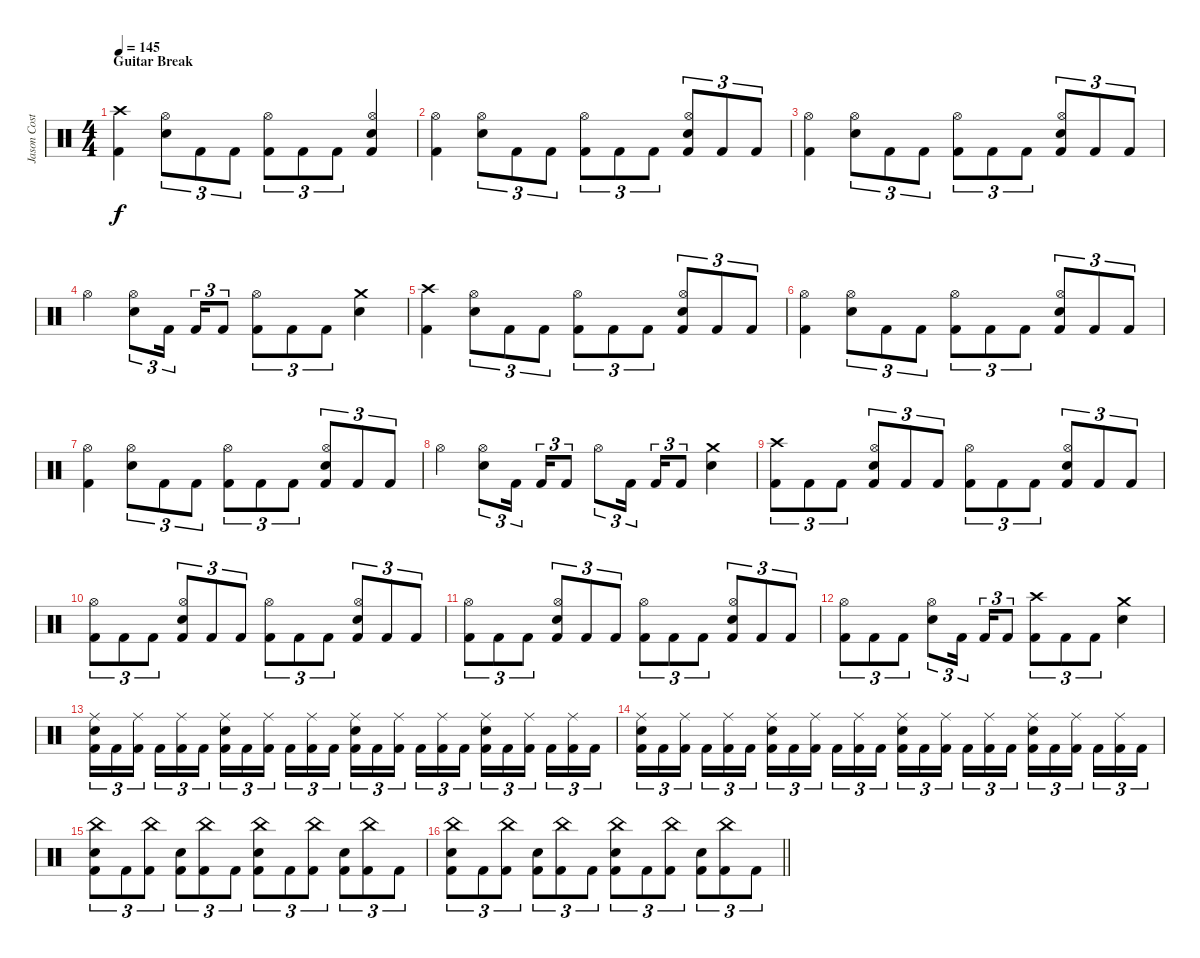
\track ("Jason Costa" "Jason Cost") {instrument percussion}
\staff {score}
\articulation defaults
\ts (4 4)
\section ("" "Guitar Break")
\tempo 145
\clef neutral
\ks c
("Crash high (hit)" "Kick (hit) 2").4{dy f} ("Hi-Hat (open)" "Electric Snare (hit)").8{tu (3 2)} "Kick (hit) 2".8{tu (3 2)} "Kick (hit) 2".8{tu (3 2)} ("Hi-Hat (open)" "Kick (hit) 2").8{tu (3 2)} "Kick (hit) 2".8{tu (3 2)} "Kick (hit) 2".8{tu (3 2)} ("Hi-Hat (open)" "Electric Snare (hit)" "Kick (hit) 2").4 |
("Hi-Hat (open)" "Kick (hit) 2").4 ("Hi-Hat (open)" "Electric Snare (hit)").8{tu (3 2)} "Kick (hit) 2".8{tu (3 2)} "Kick (hit) 2".8{tu (3 2)} ("Hi-Hat (open)" "Kick (hit) 2").8{tu (3 2)} "Kick (hit) 2".8{tu (3 2)} "Kick (hit) 2".8{tu (3 2)} ("Hi-Hat (open)" "Electric Snare (hit)" "Kick (hit) 2").8{tu (3 2)} "Kick (hit) 2".8{tu (3 2)} "Kick (hit) 2".8{tu (3 2)} |
("Hi-Hat (open)" "Kick (hit) 2").4 ("Hi-Hat (open)" "Electric Snare (hit)").8{tu (3 2)} "Kick (hit) 2".8{tu (3 2)} "Kick (hit) 2".8{tu (3 2)} ("Hi-Hat (open)" "Kick (hit) 2").8{tu (3 2)} "Kick (hit) 2".8{tu (3 2)} "Kick (hit) 2".8{tu (3 2)} ("Hi-Hat (open)" "Electric Snare (hit)" "Kick (hit) 2").8{tu (3 2)} "Kick (hit) 2".8{tu (3 2)} "Kick (hit) 2".8{tu (3 2)} |
"Hi-Hat (open)".4 ("Hi-Hat (open)" "Electric Snare (hit)").8{tu (3 2)} "Kick (hit) 2".16{tu (3 2) beam splitsecondary} "Kick (hit) 2".16{tu (3 2)} "Kick (hit) 2".8{tu (3 2)} ("Hi-Hat (open)" "Kick (hit) 2").8{tu (3 2)} "Kick (hit) 2".8{tu (3 2)} "Kick (hit) 2".8{tu (3 2)} ("Crash medium (hit)" "Electric Snare (hit)").4 |
("Crash high (hit)" "Kick (hit) 2").4 ("Hi-Hat (open)" "Electric Snare (hit)").8{tu (3 2)} "Kick (hit) 2".8{tu (3 2)} "Kick (hit) 2".8{tu (3 2)} ("Hi-Hat (open)" "Kick (hit) 2").8{tu (3 2)} "Kick (hit) 2".8{tu (3 2)} "Kick (hit) 2".8{tu (3 2)} ("Hi-Hat (open)" "Electric Snare (hit)" "Kick (hit) 2").8{tu (3 2)} "Kick (hit) 2".8{tu (3 2)} "Kick (hit) 2".8{tu (3 2)} |
("Hi-Hat (open)" "Kick (hit) 2").4 ("Hi-Hat (open)" "Electric Snare (hit)").8{tu (3 2)} "Kick (hit) 2".8{tu (3 2)} "Kick (hit) 2".8{tu (3 2)} ("Hi-Hat (open)" "Kick (hit) 2").8{tu (3 2)} "Kick (hit) 2".8{tu (3 2)} "Kick (hit) 2".8{tu (3 2)} ("Hi-Hat (open)" "Electric Snare (hit)" "Kick (hit) 2").8{tu (3 2)} "Kick (hit) 2".8{tu (3 2)} "Kick (hit) 2".8{tu (3 2)} |
("Hi-Hat (open)" "Kick (hit) 2").4 ("Hi-Hat (open)" "Electric Snare (hit)").8{tu (3 2)} "Kick (hit) 2".8{tu (3 2)} "Kick (hit) 2".8{tu (3 2)} ("Hi-Hat (open)" "Kick (hit) 2").8{tu (3 2)} "Kick (hit) 2".8{tu (3 2)} "Kick (hit) 2".8{tu (3 2)} ("Hi-Hat (open)" "Electric Snare (hit)" "Kick (hit) 2").8{tu (3 2)} "Kick (hit) 2".8{tu (3 2)} "Kick (hit) 2".8{tu (3 2)} |
"Hi-Hat (open)".4 ("Hi-Hat (open)" "Electric Snare (hit)").8{tu (3 2)} "Kick (hit) 2".16{tu (3 2) beam splitsecondary} "Kick (hit) 2".16{tu (3 2)} "Kick (hit) 2".8{tu (3 2)} "Hi-Hat (open)".8{tu (3 2)} "Kick (hit) 2".16{tu (3 2) beam splitsecondary} "Kick (hit) 2".16{tu (3 2)} "Kick (hit) 2".8{tu (3 2)} ("Crash medium (hit)" "Electric Snare (hit)").4 |
("Crash high (hit)" "Kick (hit) 2").8{tu (3 2)} "Kick (hit) 2".8{tu (3 2)} "Kick (hit) 2".8{tu (3 2)} ("Hi-Hat (open)" "Electric Snare (hit)" "Kick (hit) 2").8{tu (3 2)} "Kick (hit) 2".8{tu (3 2)} "Kick (hit) 2".8{tu (3 2)} ("Hi-Hat (open)" "Kick (hit) 2").8{tu (3 2)} "Kick (hit) 2".8{tu (3 2)} "Kick (hit) 2".8{tu (3 2)} ("Hi-Hat (open)" "Electric Snare (hit)" "Kick (hit) 2").8{tu (3 2)} "Kick (hit) 2".8{tu (3 2)} "Kick (hit) 2".8{tu (3 2)} |
("Hi-Hat (open)" "Kick (hit) 2").8{tu (3 2)} "Kick (hit) 2".8{tu (3 2)} "Kick (hit) 2".8{tu (3 2)} ("Hi-Hat (open)" "Electric Snare (hit)" "Kick (hit) 2").8{tu (3 2)} "Kick (hit) 2".8{tu (3 2)} "Kick (hit) 2".8{tu (3 2)} ("Hi-Hat (open)" "Kick (hit) 2").8{tu (3 2)} "Kick (hit) 2".8{tu (3 2)} "Kick (hit) 2".8{tu (3 2)} ("Hi-Hat (open)" "Electric Snare (hit)" "Kick (hit) 2").8{tu (3 2)} "Kick (hit) 2".8{tu (3 2)} "Kick (hit) 2".8{tu (3 2)} |
("Hi-Hat (open)" "Kick (hit) 2").8{tu (3 2)} "Kick (hit) 2".8{tu (3 2)} "Kick (hit) 2".8{tu (3 2)} ("Hi-Hat (open)" "Electric Snare (hit)" "Kick (hit) 2").8{tu (3 2)} "Kick (hit) 2".8{tu (3 2)} "Kick (hit) 2".8{tu (3 2)} ("Hi-Hat (open)" "Kick (hit) 2").8{tu (3 2)} "Kick (hit) 2".8{tu (3 2)} "Kick (hit) 2".8{tu (3 2)} ("Hi-Hat (open)" "Electric Snare (hit)" "Kick (hit) 2").8{tu (3 2)} "Kick (hit) 2".8{tu (3 2)} "Kick (hit) 2".8{tu (3 2)} |
("Hi-Hat (open)" "Kick (hit) 2").8{tu (3 2)} "Kick (hit) 2".8{tu (3 2)} "Kick (hit) 2".8{tu (3 2)} ("Hi-Hat (open)" "Electric Snare (hit)").8{tu (3 2)} "Kick (hit) 2".16{tu (3 2) beam splitsecondary} "Kick (hit) 2".16{tu (3 2)} "Kick (hit) 2".8{tu (3 2)} ("Crash high (hit)" "Kick (hit) 2").8{tu (3 2)} "Kick (hit) 2".8{tu (3 2)} "Kick (hit) 2".8{tu (3 2)} ("Crash medium (hit)" "Electric Snare (hit)").4 |
("Ride (middle)" "Electric Snare (hit)" "Kick (hit) 2").16{tu (3 2)} "Kick (hit) 2".16{tu (3 2)} ("Ride (middle)" "Kick (hit) 2").16{tu (3 2) beam splitsecondary} "Kick (hit) 2".16{tu (3 2)} ("Ride (middle)" "Kick (hit) 2").16{tu (3 2)} "Kick (hit) 2".16{tu (3 2)} ("Ride (middle)" "Electric Snare (hit)" "Kick (hit) 2").16{tu (3 2)} "Kick (hit) 2".16{tu (3 2)} ("Ride (middle)" "Kick (hit) 2").16{tu (3 2) beam splitsecondary} "Kick (hit) 2".16{tu (3 2)} ("Ride (middle)" "Kick (hit) 2").16{tu (3 2)} "Kick (hit) 2".16{tu (3 2)} ("Ride (middle)" "Electric Snare (hit)" "Kick (hit) 2").16{tu (3 2)} "Kick (hit) 2".16{tu (3 2)} ("Ride (middle)" "Kick (hit) 2").16{tu (3 2) beam splitsecondary} "Kick (hit) 2".16{tu (3 2)} ("Ride (middle)" "Kick (hit) 2").16{tu (3 2)} "Kick (hit) 2".16{tu (3 2)} ("Ride (middle)" "Electric Snare (hit)" "Kick (hit) 2").16{tu (3 2)} "Kick (hit) 2".16{tu (3 2)} ("Ride (middle)" "Kick (hit) 2").16{tu (3 2) beam splitsecondary} "Kick (hit) 2".16{tu (3 2)} ("Ride (middle)" "Kick (hit) 2").16{tu (3 2)} "Kick (hit) 2".16{tu (3 2)} |
("Ride (middle)" "Electric Snare (hit)" "Kick (hit) 2").16{tu (3 2)} "Kick (hit) 2".16{tu (3 2)} ("Ride (middle)" "Kick (hit) 2").16{tu (3 2) beam splitsecondary} "Kick (hit) 2".16{tu (3 2)} ("Ride (middle)" "Kick (hit) 2").16{tu (3 2)} "Kick (hit) 2".16{tu (3 2)} ("Ride (middle)" "Electric Snare (hit)" "Kick (hit) 2").16{tu (3 2)} "Kick (hit) 2".16{tu (3 2)} ("Ride (middle)" "Kick (hit) 2").16{tu (3 2) beam splitsecondary} "Kick (hit) 2".16{tu (3 2)} ("Ride (middle)" "Kick (hit) 2").16{tu (3 2)} "Kick (hit) 2".16{tu (3 2)} ("Ride (middle)" "Electric Snare (hit)" "Kick (hit) 2").16{tu (3 2)} "Kick (hit) 2".16{tu (3 2)} ("Ride (middle)" "Kick (hit) 2").16{tu (3 2) beam splitsecondary} "Kick (hit) 2".16{tu (3 2)} ("Ride (middle)" "Kick (hit) 2").16{tu (3 2)} "Kick (hit) 2".16{tu (3 2)} ("Ride (middle)" "Electric Snare (hit)" "Kick (hit) 2").16{tu (3 2)} "Kick (hit) 2".16{tu (3 2)} ("Ride (middle)" "Kick (hit) 2").16{tu (3 2) beam splitsecondary} "Kick (hit) 2".16{tu (3 2)} ("Ride (middle)" "Kick (hit) 2").16{tu (3 2)} "Kick (hit) 2".16{tu (3 2)} |
("China (hit)" "Electric Snare (hit)" "Kick (hit) 2").8{tu (3 2)} "Kick (hit) 2".8{tu (3 2)} ("China (hit)" "Kick (hit) 2").8{tu (3 2)} ("Electric Snare (hit)" "Kick (hit) 2").8{tu (3 2)} ("China (hit)" "Kick (hit) 2").8{tu (3 2)} "Kick (hit) 2".8{tu (3 2)} ("China (hit)" "Electric Snare (hit)" "Kick (hit) 2").8{tu (3 2)} "Kick (hit) 2".8{tu (3 2)} ("China (hit)" "Kick (hit) 2").8{tu (3 2)} ("Electric Snare (hit)" "Kick (hit) 2").8{tu (3 2)} ("China (hit)" "Kick (hit) 2").8{tu (3 2)} "Kick (hit) 2".8{tu (3 2)} |
\barLineRight lightlight
("China (hit)" "Electric Snare (hit)" "Kick (hit) 2").8{tu (3 2)} "Kick (hit) 2".8{tu (3 2)} ("China (hit)" "Kick (hit) 2").8{tu (3 2)} ("Electric Snare (hit)" "Kick (hit) 2").8{tu (3 2)} ("China (hit)" "Kick (hit) 2").8{tu (3 2)} "Kick (hit) 2".8{tu (3 2)} ("China (hit)" "Electric Snare (hit)" "Kick (hit) 2").8{tu (3 2)} "Kick (hit) 2".8{tu (3 2)} ("China (hit)" "Kick (hit) 2").8{tu (3 2)} ("Electric Snare (hit)" "Kick (hit) 2").8{tu (3 2)} ("China (hit)" "Kick (hit) 2").8{tu (3 2)} "Kick (hit) 2".8{tu (3 2)}
